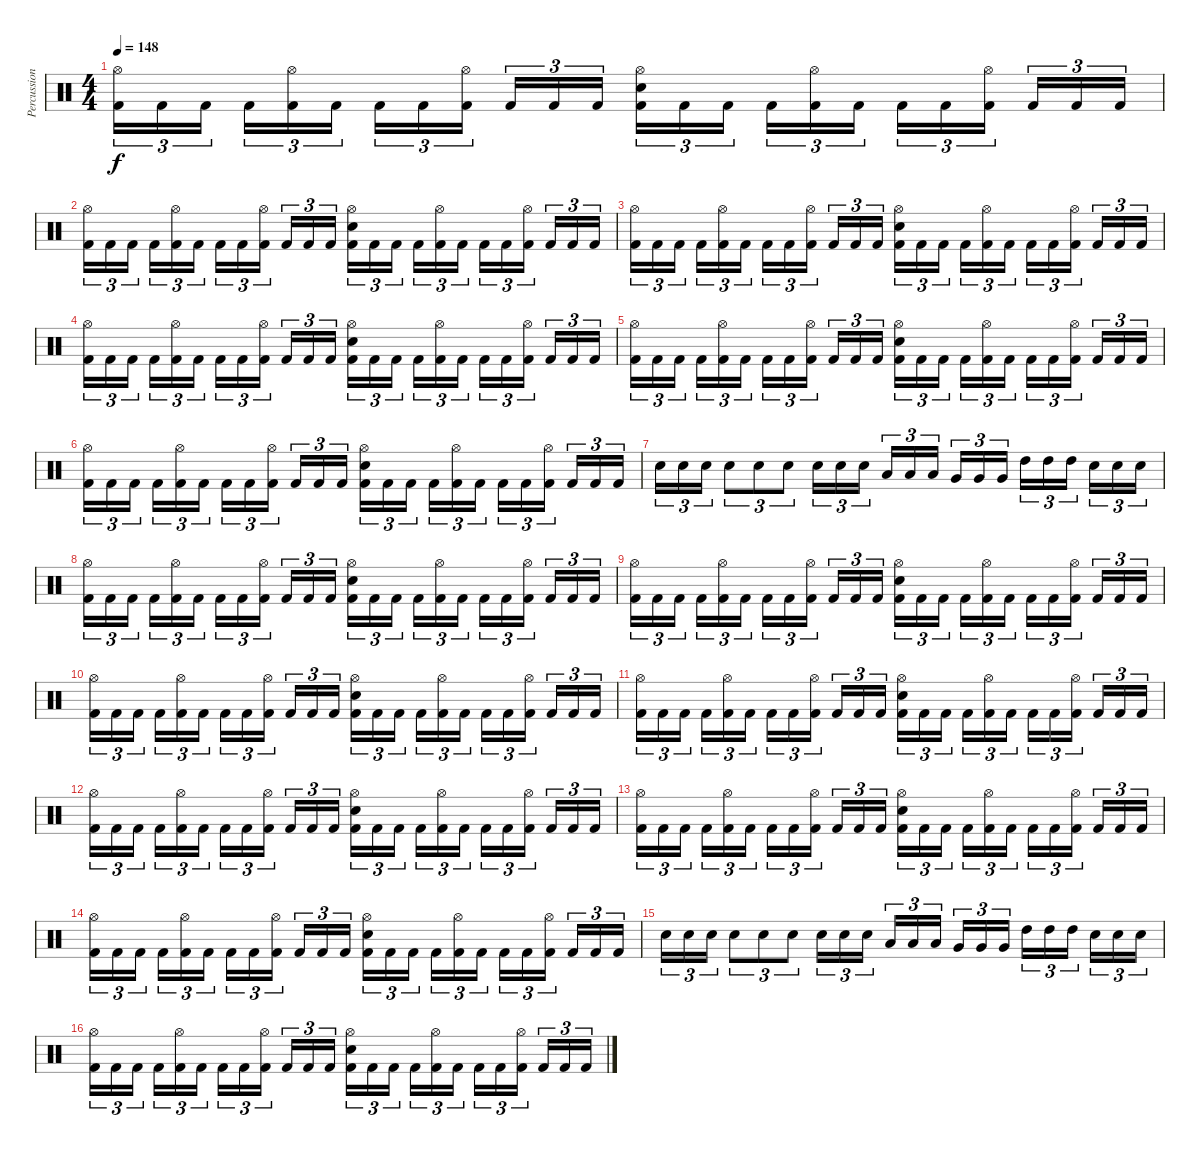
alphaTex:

\track ("Percussion" "Percussion") {instrument percussion}
\staff {score}
\articulation defaults
\ts (4 4)
\tempo 148
\clef neutral
\ks c
("Hi-Hat (open)" "Kick (hit) 2").16{tu (3 2) dy f} "Kick (hit) 2".16{tu (3 2)} "Kick (hit) 2".16{tu (3 2)} "Kick (hit) 2".16{tu (3 2)} ("Hi-Hat (open)" "Kick (hit) 2").16{tu (3 2)} "Kick (hit) 2".16{tu (3 2)} "Kick (hit) 2".16{tu (3 2)} "Kick (hit) 2".16{tu (3 2)} ("Hi-Hat (open)" "Kick (hit) 2").16{tu (3 2)} "Kick (hit) 2".16{tu (3 2)} "Kick (hit) 2".16{tu (3 2)} "Kick (hit) 2".16{tu (3 2)} ("Hi-Hat (open)" "Electric Snare (hit)" "Kick (hit) 2").16{tu (3 2)} "Kick (hit) 2".16{tu (3 2)} "Kick (hit) 2".16{tu (3 2)} "Kick (hit) 2".16{tu (3 2)} ("Hi-Hat (open)" "Kick (hit) 2").16{tu (3 2)} "Kick (hit) 2".16{tu (3 2)} "Kick (hit) 2".16{tu (3 2)} "Kick (hit) 2".16{tu (3 2)} ("Hi-Hat (open)" "Kick (hit) 2").16{tu (3 2)} "Kick (hit) 2".16{tu (3 2)} "Kick (hit) 2".16{tu (3 2)} "Kick (hit) 2".16{tu (3 2)} |
("Hi-Hat (open)" "Kick (hit) 2").16{tu (3 2)} "Kick (hit) 2".16{tu (3 2)} "Kick (hit) 2".16{tu (3 2)} "Kick (hit) 2".16{tu (3 2)} ("Hi-Hat (open)" "Kick (hit) 2").16{tu (3 2)} "Kick (hit) 2".16{tu (3 2)} "Kick (hit) 2".16{tu (3 2)} "Kick (hit) 2".16{tu (3 2)} ("Hi-Hat (open)" "Kick (hit) 2").16{tu (3 2)} "Kick (hit) 2".16{tu (3 2)} "Kick (hit) 2".16{tu (3 2)} "Kick (hit) 2".16{tu (3 2)} ("Hi-Hat (open)" "Electric Snare (hit)" "Kick (hit) 2").16{tu (3 2)} "Kick (hit) 2".16{tu (3 2)} "Kick (hit) 2".16{tu (3 2)} "Kick (hit) 2".16{tu (3 2)} ("Hi-Hat (open)" "Kick (hit) 2").16{tu (3 2)} "Kick (hit) 2".16{tu (3 2)} "Kick (hit) 2".16{tu (3 2)} "Kick (hit) 2".16{tu (3 2)} ("Hi-Hat (open)" "Kick (hit) 2").16{tu (3 2)} "Kick (hit) 2".16{tu (3 2)} "Kick (hit) 2".16{tu (3 2)} "Kick (hit) 2".16{tu (3 2)} |
("Hi-Hat (open)" "Kick (hit) 2").16{tu (3 2)} "Kick (hit) 2".16{tu (3 2)} "Kick (hit) 2".16{tu (3 2)} "Kick (hit) 2".16{tu (3 2)} ("Hi-Hat (open)" "Kick (hit) 2").16{tu (3 2)} "Kick (hit) 2".16{tu (3 2)} "Kick (hit) 2".16{tu (3 2)} "Kick (hit) 2".16{tu (3 2)} ("Hi-Hat (open)" "Kick (hit) 2").16{tu (3 2)} "Kick (hit) 2".16{tu (3 2)} "Kick (hit) 2".16{tu (3 2)} "Kick (hit) 2".16{tu (3 2)} ("Hi-Hat (open)" "Electric Snare (hit)" "Kick (hit) 2").16{tu (3 2)} "Kick (hit) 2".16{tu (3 2)} "Kick (hit) 2".16{tu (3 2)} "Kick (hit) 2".16{tu (3 2)} ("Hi-Hat (open)" "Kick (hit) 2").16{tu (3 2)} "Kick (hit) 2".16{tu (3 2)} "Kick (hit) 2".16{tu (3 2)} "Kick (hit) 2".16{tu (3 2)} ("Hi-Hat (open)" "Kick (hit) 2").16{tu (3 2)} "Kick (hit) 2".16{tu (3 2)} "Kick (hit) 2".16{tu (3 2)} "Kick (hit) 2".16{tu (3 2)} |
("Hi-Hat (open)" "Kick (hit) 2").16{tu (3 2)} "Kick (hit) 2".16{tu (3 2)} "Kick (hit) 2".16{tu (3 2)} "Kick (hit) 2".16{tu (3 2)} ("Hi-Hat (open)" "Kick (hit) 2").16{tu (3 2)} "Kick (hit) 2".16{tu (3 2)} "Kick (hit) 2".16{tu (3 2)} "Kick (hit) 2".16{tu (3 2)} ("Hi-Hat (open)" "Kick (hit) 2").16{tu (3 2)} "Kick (hit) 2".16{tu (3 2)} "Kick (hit) 2".16{tu (3 2)} "Kick (hit) 2".16{tu (3 2)} ("Hi-Hat (open)" "Electric Snare (hit)" "Kick (hit) 2").16{tu (3 2)} "Kick (hit) 2".16{tu (3 2)} "Kick (hit) 2".16{tu (3 2)} "Kick (hit) 2".16{tu (3 2)} ("Hi-Hat (open)" "Kick (hit) 2").16{tu (3 2)} "Kick (hit) 2".16{tu (3 2)} "Kick (hit) 2".16{tu (3 2)} "Kick (hit) 2".16{tu (3 2)} ("Hi-Hat (open)" "Kick (hit) 2").16{tu (3 2)} "Kick (hit) 2".16{tu (3 2)} "Kick (hit) 2".16{tu (3 2)} "Kick (hit) 2".16{tu (3 2)} |
("Hi-Hat (open)" "Kick (hit) 2").16{tu (3 2)} "Kick (hit) 2".16{tu (3 2)} "Kick (hit) 2".16{tu (3 2)} "Kick (hit) 2".16{tu (3 2)} ("Hi-Hat (open)" "Kick (hit) 2").16{tu (3 2)} "Kick (hit) 2".16{tu (3 2)} "Kick (hit) 2".16{tu (3 2)} "Kick (hit) 2".16{tu (3 2)} ("Hi-Hat (open)" "Kick (hit) 2").16{tu (3 2)} "Kick (hit) 2".16{tu (3 2)} "Kick (hit) 2".16{tu (3 2)} "Kick (hit) 2".16{tu (3 2)} ("Hi-Hat (open)" "Electric Snare (hit)" "Kick (hit) 2").16{tu (3 2)} "Kick (hit) 2".16{tu (3 2)} "Kick (hit) 2".16{tu (3 2)} "Kick (hit) 2".16{tu (3 2)} ("Hi-Hat (open)" "Kick (hit) 2").16{tu (3 2)} "Kick (hit) 2".16{tu (3 2)} "Kick (hit) 2".16{tu (3 2)} "Kick (hit) 2".16{tu (3 2)} ("Hi-Hat (open)" "Kick (hit) 2").16{tu (3 2)} "Kick (hit) 2".16{tu (3 2)} "Kick (hit) 2".16{tu (3 2)} "Kick (hit) 2".16{tu (3 2)} |
("Hi-Hat (open)" "Kick (hit) 2").16{tu (3 2)} "Kick (hit) 2".16{tu (3 2)} "Kick (hit) 2".16{tu (3 2)} "Kick (hit) 2".16{tu (3 2)} ("Hi-Hat (open)" "Kick (hit) 2").16{tu (3 2)} "Kick (hit) 2".16{tu (3 2)} "Kick (hit) 2".16{tu (3 2)} "Kick (hit) 2".16{tu (3 2)} ("Hi-Hat (open)" "Kick (hit) 2").16{tu (3 2)} "Kick (hit) 2".16{tu (3 2)} "Kick (hit) 2".16{tu (3 2)} "Kick (hit) 2".16{tu (3 2)} ("Hi-Hat (open)" "Electric Snare (hit)" "Kick (hit) 2").16{tu (3 2)} "Kick (hit) 2".16{tu (3 2)} "Kick (hit) 2".16{tu (3 2)} "Kick (hit) 2".16{tu (3 2)} ("Hi-Hat (open)" "Kick (hit) 2").16{tu (3 2)} "Kick (hit) 2".16{tu (3 2)} "Kick (hit) 2".16{tu (3 2)} "Kick (hit) 2".16{tu (3 2)} ("Hi-Hat (open)" "Kick (hit) 2").16{tu (3 2)} "Kick (hit) 2".16{tu (3 2)} "Kick (hit) 2".16{tu (3 2)} "Kick (hit) 2".16{tu (3 2)} |
"Electric Snare (hit)".16{tu (3 2)} "Electric Snare (hit)".16{tu (3 2)} "Electric Snare (hit)".16{tu (3 2)} "Electric Snare (hit)".8{tu (3 2)} "Electric Snare (hit)".8{tu (3 2)} "Electric Snare (hit)".8{tu (3 2)} "Electric Snare (hit)".16{tu (3 2)} "Electric Snare (hit)".16{tu (3 2)} "Electric Snare (hit)".16{tu (3 2)} "Low Tom (hit)".16{tu (3 2)} "Low Tom (hit)".16{tu (3 2)} "Low Tom (hit)".16{tu (3 2)} "Very Low Tom (hit)".16{tu (3 2)} "Very Low Tom (hit)".16{tu (3 2)} "Very Low Tom (hit)".16{tu (3 2)} "High Tom (hit)".16{tu (3 2)} "High Tom (hit)".16{tu (3 2)} "High Tom (hit)".16{tu (3 2)} "Electric Snare (hit)".16{tu (3 2)} "Electric Snare (hit)".16{tu (3 2)} "Electric Snare (hit)".16{tu (3 2)} |
("Hi-Hat (open)" "Kick (hit) 2").16{tu (3 2)} "Kick (hit) 2".16{tu (3 2)} "Kick (hit) 2".16{tu (3 2)} "Kick (hit) 2".16{tu (3 2)} ("Hi-Hat (open)" "Kick (hit) 2").16{tu (3 2)} "Kick (hit) 2".16{tu (3 2)} "Kick (hit) 2".16{tu (3 2)} "Kick (hit) 2".16{tu (3 2)} ("Hi-Hat (open)" "Kick (hit) 2").16{tu (3 2)} "Kick (hit) 2".16{tu (3 2)} "Kick (hit) 2".16{tu (3 2)} "Kick (hit) 2".16{tu (3 2)} ("Hi-Hat (open)" "Electric Snare (hit)" "Kick (hit) 2").16{tu (3 2)} "Kick (hit) 2".16{tu (3 2)} "Kick (hit) 2".16{tu (3 2)} "Kick (hit) 2".16{tu (3 2)} ("Hi-Hat (open)" "Kick (hit) 2").16{tu (3 2)} "Kick (hit) 2".16{tu (3 2)} "Kick (hit) 2".16{tu (3 2)} "Kick (hit) 2".16{tu (3 2)} ("Hi-Hat (open)" "Kick (hit) 2").16{tu (3 2)} "Kick (hit) 2".16{tu (3 2)} "Kick (hit) 2".16{tu (3 2)} "Kick (hit) 2".16{tu (3 2)} |
("Hi-Hat (open)" "Kick (hit) 2").16{tu (3 2)} "Kick (hit) 2".16{tu (3 2)} "Kick (hit) 2".16{tu (3 2)} "Kick (hit) 2".16{tu (3 2)} ("Hi-Hat (open)" "Kick (hit) 2").16{tu (3 2)} "Kick (hit) 2".16{tu (3 2)} "Kick (hit) 2".16{tu (3 2)} "Kick (hit) 2".16{tu (3 2)} ("Hi-Hat (open)" "Kick (hit) 2").16{tu (3 2)} "Kick (hit) 2".16{tu (3 2)} "Kick (hit) 2".16{tu (3 2)} "Kick (hit) 2".16{tu (3 2)} ("Hi-Hat (open)" "Electric Snare (hit)" "Kick (hit) 2").16{tu (3 2)} "Kick (hit) 2".16{tu (3 2)} "Kick (hit) 2".16{tu (3 2)} "Kick (hit) 2".16{tu (3 2)} ("Hi-Hat (open)" "Kick (hit) 2").16{tu (3 2)} "Kick (hit) 2".16{tu (3 2)} "Kick (hit) 2".16{tu (3 2)} "Kick (hit) 2".16{tu (3 2)} ("Hi-Hat (open)" "Kick (hit) 2").16{tu (3 2)} "Kick (hit) 2".16{tu (3 2)} "Kick (hit) 2".16{tu (3 2)} "Kick (hit) 2".16{tu (3 2)} |
("Hi-Hat (open)" "Kick (hit) 2").16{tu (3 2)} "Kick (hit) 2".16{tu (3 2)} "Kick (hit) 2".16{tu (3 2)} "Kick (hit) 2".16{tu (3 2)} ("Hi-Hat (open)" "Kick (hit) 2").16{tu (3 2)} "Kick (hit) 2".16{tu (3 2)} "Kick (hit) 2".16{tu (3 2)} "Kick (hit) 2".16{tu (3 2)} ("Hi-Hat (open)" "Kick (hit) 2").16{tu (3 2)} "Kick (hit) 2".16{tu (3 2)} "Kick (hit) 2".16{tu (3 2)} "Kick (hit) 2".16{tu (3 2)} ("Hi-Hat (open)" "Electric Snare (hit)" "Kick (hit) 2").16{tu (3 2)} "Kick (hit) 2".16{tu (3 2)} "Kick (hit) 2".16{tu (3 2)} "Kick (hit) 2".16{tu (3 2)} ("Hi-Hat (open)" "Kick (hit) 2").16{tu (3 2)} "Kick (hit) 2".16{tu (3 2)} "Kick (hit) 2".16{tu (3 2)} "Kick (hit) 2".16{tu (3 2)} ("Hi-Hat (open)" "Kick (hit) 2").16{tu (3 2)} "Kick (hit) 2".16{tu (3 2)} "Kick (hit) 2".16{tu (3 2)} "Kick (hit) 2".16{tu (3 2)} |
("Hi-Hat (open)" "Kick (hit) 2").16{tu (3 2)} "Kick (hit) 2".16{tu (3 2)} "Kick (hit) 2".16{tu (3 2)} "Kick (hit) 2".16{tu (3 2)} ("Hi-Hat (open)" "Kick (hit) 2").16{tu (3 2)} "Kick (hit) 2".16{tu (3 2)} "Kick (hit) 2".16{tu (3 2)} "Kick (hit) 2".16{tu (3 2)} ("Hi-Hat (open)" "Kick (hit) 2").16{tu (3 2)} "Kick (hit) 2".16{tu (3 2)} "Kick (hit) 2".16{tu (3 2)} "Kick (hit) 2".16{tu (3 2)} ("Hi-Hat (open)" "Electric Snare (hit)" "Kick (hit) 2").16{tu (3 2)} "Kick (hit) 2".16{tu (3 2)} "Kick (hit) 2".16{tu (3 2)} "Kick (hit) 2".16{tu (3 2)} ("Hi-Hat (open)" "Kick (hit) 2").16{tu (3 2)} "Kick (hit) 2".16{tu (3 2)} "Kick (hit) 2".16{tu (3 2)} "Kick (hit) 2".16{tu (3 2)} ("Hi-Hat (open)" "Kick (hit) 2").16{tu (3 2)} "Kick (hit) 2".16{tu (3 2)} "Kick (hit) 2".16{tu (3 2)} "Kick (hit) 2".16{tu (3 2)} |
("Hi-Hat (open)" "Kick (hit) 2").16{tu (3 2)} "Kick (hit) 2".16{tu (3 2)} "Kick (hit) 2".16{tu (3 2)} "Kick (hit) 2".16{tu (3 2)} ("Hi-Hat (open)" "Kick (hit) 2").16{tu (3 2)} "Kick (hit) 2".16{tu (3 2)} "Kick (hit) 2".16{tu (3 2)} "Kick (hit) 2".16{tu (3 2)} ("Hi-Hat (open)" "Kick (hit) 2").16{tu (3 2)} "Kick (hit) 2".16{tu (3 2)} "Kick (hit) 2".16{tu (3 2)} "Kick (hit) 2".16{tu (3 2)} ("Hi-Hat (open)" "Electric Snare (hit)" "Kick (hit) 2").16{tu (3 2)} "Kick (hit) 2".16{tu (3 2)} "Kick (hit) 2".16{tu (3 2)} "Kick (hit) 2".16{tu (3 2)} ("Hi-Hat (open)" "Kick (hit) 2").16{tu (3 2)} "Kick (hit) 2".16{tu (3 2)} "Kick (hit) 2".16{tu (3 2)} "Kick (hit) 2".16{tu (3 2)} ("Hi-Hat (open)" "Kick (hit) 2").16{tu (3 2)} "Kick (hit) 2".16{tu (3 2)} "Kick (hit) 2".16{tu (3 2)} "Kick (hit) 2".16{tu (3 2)} |
("Hi-Hat (open)" "Kick (hit) 2").16{tu (3 2)} "Kick (hit) 2".16{tu (3 2)} "Kick (hit) 2".16{tu (3 2)} "Kick (hit) 2".16{tu (3 2)} ("Hi-Hat (open)" "Kick (hit) 2").16{tu (3 2)} "Kick (hit) 2".16{tu (3 2)} "Kick (hit) 2".16{tu (3 2)} "Kick (hit) 2".16{tu (3 2)} ("Hi-Hat (open)" "Kick (hit) 2").16{tu (3 2)} "Kick (hit) 2".16{tu (3 2)} "Kick (hit) 2".16{tu (3 2)} "Kick (hit) 2".16{tu (3 2)} ("Hi-Hat (open)" "Electric Snare (hit)" "Kick (hit) 2").16{tu (3 2)} "Kick (hit) 2".16{tu (3 2)} "Kick (hit) 2".16{tu (3 2)} "Kick (hit) 2".16{tu (3 2)} ("Hi-Hat (open)" "Kick (hit) 2").16{tu (3 2)} "Kick (hit) 2".16{tu (3 2)} "Kick (hit) 2".16{tu (3 2)} "Kick (hit) 2".16{tu (3 2)} ("Hi-Hat (open)" "Kick (hit) 2").16{tu (3 2)} "Kick (hit) 2".16{tu (3 2)} "Kick (hit) 2".16{tu (3 2)} "Kick (hit) 2".16{tu (3 2)} |
("Hi-Hat (open)" "Kick (hit) 2").16{tu (3 2)} "Kick (hit) 2".16{tu (3 2)} "Kick (hit) 2".16{tu (3 2)} "Kick (hit) 2".16{tu (3 2)} ("Hi-Hat (open)" "Kick (hit) 2").16{tu (3 2)} "Kick (hit) 2".16{tu (3 2)} "Kick (hit) 2".16{tu (3 2)} "Kick (hit) 2".16{tu (3 2)} ("Hi-Hat (open)" "Kick (hit) 2").16{tu (3 2)} "Kick (hit) 2".16{tu (3 2)} "Kick (hit) 2".16{tu (3 2)} "Kick (hit) 2".16{tu (3 2)} ("Hi-Hat (open)" "Electric Snare (hit)" "Kick (hit) 2").16{tu (3 2)} "Kick (hit) 2".16{tu (3 2)} "Kick (hit) 2".16{tu (3 2)} "Kick (hit) 2".16{tu (3 2)} ("Hi-Hat (open)" "Kick (hit) 2").16{tu (3 2)} "Kick (hit) 2".16{tu (3 2)} "Kick (hit) 2".16{tu (3 2)} "Kick (hit) 2".16{tu (3 2)} ("Hi-Hat (open)" "Kick (hit) 2").16{tu (3 2)} "Kick (hit) 2".16{tu (3 2)} "Kick (hit) 2".16{tu (3 2)} "Kick (hit) 2".16{tu (3 2)} |
"Electric Snare (hit)".16{tu (3 2)} "Electric Snare (hit)".16{tu (3 2)} "Electric Snare (hit)".16{tu (3 2)} "Electric Snare (hit)".8{tu (3 2)} "Electric Snare (hit)".8{tu (3 2)} "Electric Snare (hit)".8{tu (3 2)} "Electric Snare (hit)".16{tu (3 2)} "Electric Snare (hit)".16{tu (3 2)} "Electric Snare (hit)".16{tu (3 2)} "Low Tom (hit)".16{tu (3 2)} "Low Tom (hit)".16{tu (3 2)} "Low Tom (hit)".16{tu (3 2)} "Very Low Tom (hit)".16{tu (3 2)} "Very Low Tom (hit)".16{tu (3 2)} "Very Low Tom (hit)".16{tu (3 2)} "High Tom (hit)".16{tu (3 2)} "High Tom (hit)".16{tu (3 2)} "High Tom (hit)".16{tu (3 2)} "Electric Snare (hit)".16{tu (3 2)} "Electric Snare (hit)".16{tu (3 2)} "Electric Snare (hit)".16{tu (3 2)} |
("Hi-Hat (open)" "Kick (hit) 2").16{tu (3 2)} "Kick (hit) 2".16{tu (3 2)} "Kick (hit) 2".16{tu (3 2)} "Kick (hit) 2".16{tu (3 2)} ("Hi-Hat (open)" "Kick (hit) 2").16{tu (3 2)} "Kick (hit) 2".16{tu (3 2)} "Kick (hit) 2".16{tu (3 2)} "Kick (hit) 2".16{tu (3 2)} ("Hi-Hat (open)" "Kick (hit) 2").16{tu (3 2)} "Kick (hit) 2".16{tu (3 2)} "Kick (hit) 2".16{tu (3 2)} "Kick (hit) 2".16{tu (3 2)} ("Hi-Hat (open)" "Electric Snare (hit)" "Kick (hit) 2").16{tu (3 2)} "Kick (hit) 2".16{tu (3 2)} "Kick (hit) 2".16{tu (3 2)} "Kick (hit) 2".16{tu (3 2)} ("Hi-Hat (open)" "Kick (hit) 2").16{tu (3 2)} "Kick (hit) 2".16{tu (3 2)} "Kick (hit) 2".16{tu (3 2)} "Kick (hit) 2".16{tu (3 2)} ("Hi-Hat (open)" "Kick (hit) 2").16{tu (3 2)} "Kick (hit) 2".16{tu (3 2)} "Kick (hit) 2".16{tu (3 2)} "Kick (hit) 2".16{tu (3 2)}
